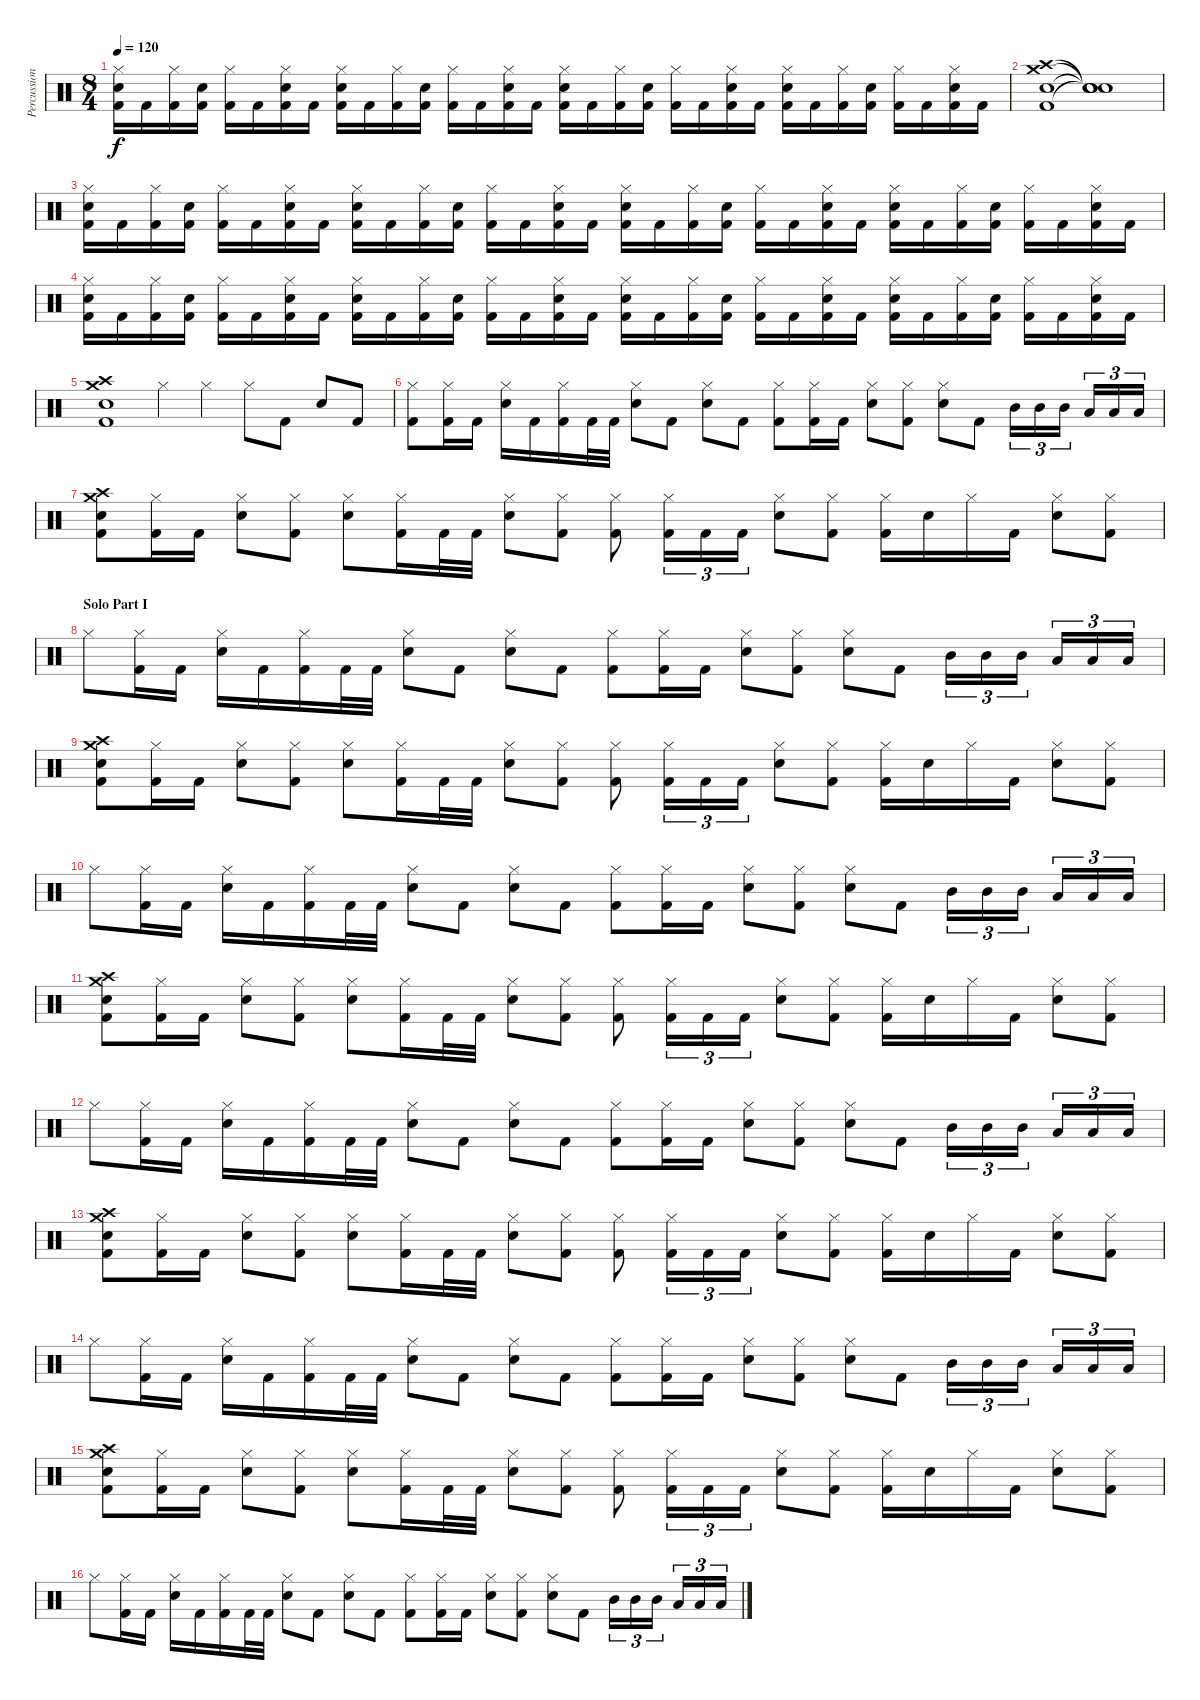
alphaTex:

\track ("Percussion" "Percussion") {instrument percussion}
\staff {score}
\articulation defaults
\ts (8 4)
\tempo 120
\clef neutral
\ks c
("Hi-Hat (closed)" "Snare (hit) 2" "Kick (hit) 2").16{dy f} "Kick (hit) 2".16 ("Hi-Hat (closed)" "Kick (hit) 2").16 ("Snare (hit) 2" "Kick (hit) 2").16 ("Hi-Hat (closed)" "Kick (hit) 2").16 "Kick (hit) 2".16 ("Hi-Hat (closed)" "Snare (hit) 2" "Kick (hit) 2").16 "Kick (hit) 2".16 ("Hi-Hat (closed)" "Snare (hit) 2" "Kick (hit) 2").16 "Kick (hit) 2".16 ("Hi-Hat (closed)" "Kick (hit) 2").16 ("Snare (hit) 2" "Kick (hit) 2").16 ("Hi-Hat (closed)" "Kick (hit) 2").16 "Kick (hit) 2".16 ("Hi-Hat (closed)" "Snare (hit) 2" "Kick (hit) 2").16 "Kick (hit) 2".16 ("Hi-Hat (closed)" "Snare (hit) 2" "Kick (hit) 2").16 "Kick (hit) 2".16 ("Hi-Hat (closed)" "Kick (hit) 2").16 ("Snare (hit) 2" "Kick (hit) 2").16 ("Hi-Hat (closed)" "Kick (hit) 2").16 "Kick (hit) 2".16 ("Hi-Hat (closed)" "Snare (hit) 2" "Kick (hit) 2").16 "Kick (hit) 2".16 ("Hi-Hat (closed)" "Snare (hit) 2" "Kick (hit) 2").16 "Kick (hit) 2".16 ("Hi-Hat (closed)" "Kick (hit) 2").16 ("Snare (hit) 2" "Kick (hit) 2").16 ("Hi-Hat (closed)" "Kick (hit) 2").16 "Kick (hit) 2".16 ("Hi-Hat (closed)" "Snare (hit) 2" "Kick (hit) 2").16 "Kick (hit) 2".16 |
("Crash medium (hit)" "Crash high (hit)" "Snare (hit) 2" "Kick (hit) 2").1 ("Snare (hit)"{t} "Snare (hit)"{t} "Snare (hit)"{t} "Snare (hit)"{t}).1 |
("Hi-Hat (closed)" "Snare (hit) 2" "Kick (hit) 2").16 "Kick (hit) 2".16 ("Hi-Hat (closed)" "Kick (hit) 2").16 ("Snare (hit) 2" "Kick (hit) 2").16 ("Hi-Hat (closed)" "Kick (hit) 2").16 "Kick (hit) 2".16 ("Hi-Hat (closed)" "Snare (hit) 2" "Kick (hit) 2").16 "Kick (hit) 2".16 ("Hi-Hat (closed)" "Snare (hit) 2" "Kick (hit) 2").16 "Kick (hit) 2".16 ("Hi-Hat (closed)" "Kick (hit) 2").16 ("Snare (hit) 2" "Kick (hit) 2").16 ("Hi-Hat (closed)" "Kick (hit) 2").16 "Kick (hit) 2".16 ("Hi-Hat (closed)" "Snare (hit) 2" "Kick (hit) 2").16 "Kick (hit) 2".16 ("Hi-Hat (closed)" "Snare (hit) 2" "Kick (hit) 2").16 "Kick (hit) 2".16 ("Hi-Hat (closed)" "Kick (hit) 2").16 ("Snare (hit) 2" "Kick (hit) 2").16 ("Hi-Hat (closed)" "Kick (hit) 2").16 "Kick (hit) 2".16 ("Hi-Hat (closed)" "Snare (hit) 2" "Kick (hit) 2").16 "Kick (hit) 2".16 ("Hi-Hat (closed)" "Snare (hit) 2" "Kick (hit) 2").16 "Kick (hit) 2".16 ("Hi-Hat (closed)" "Kick (hit) 2").16 ("Snare (hit) 2" "Kick (hit) 2").16 ("Hi-Hat (closed)" "Kick (hit) 2").16 "Kick (hit) 2".16 ("Hi-Hat (closed)" "Snare (hit) 2" "Kick (hit) 2").16 "Kick (hit) 2".16 |
("Hi-Hat (closed)" "Snare (hit) 2" "Kick (hit) 2").16 "Kick (hit) 2".16 ("Hi-Hat (closed)" "Kick (hit) 2").16 ("Snare (hit) 2" "Kick (hit) 2").16 ("Hi-Hat (closed)" "Kick (hit) 2").16 "Kick (hit) 2".16 ("Hi-Hat (closed)" "Snare (hit) 2" "Kick (hit) 2").16 "Kick (hit) 2".16 ("Hi-Hat (closed)" "Snare (hit) 2" "Kick (hit) 2").16 "Kick (hit) 2".16 ("Hi-Hat (closed)" "Kick (hit) 2").16 ("Snare (hit) 2" "Kick (hit) 2").16 ("Hi-Hat (closed)" "Kick (hit) 2").16 "Kick (hit) 2".16 ("Hi-Hat (closed)" "Snare (hit) 2" "Kick (hit) 2").16 "Kick (hit) 2".16 ("Hi-Hat (closed)" "Snare (hit) 2" "Kick (hit) 2").16 "Kick (hit) 2".16 ("Hi-Hat (closed)" "Kick (hit) 2").16 ("Snare (hit) 2" "Kick (hit) 2").16 ("Hi-Hat (closed)" "Kick (hit) 2").16 "Kick (hit) 2".16 ("Hi-Hat (closed)" "Snare (hit) 2" "Kick (hit) 2").16 "Kick (hit) 2".16 ("Hi-Hat (closed)" "Snare (hit) 2" "Kick (hit) 2").16 "Kick (hit) 2".16 ("Hi-Hat (closed)" "Kick (hit) 2").16 ("Snare (hit) 2" "Kick (hit) 2").16 ("Hi-Hat (closed)" "Kick (hit) 2").16 "Kick (hit) 2".16 ("Hi-Hat (closed)" "Snare (hit) 2" "Kick (hit) 2").16 "Kick (hit) 2".16 |
("Crash medium (hit)" "Crash high (hit)" "Snare (hit) 2" "Kick (hit) 2").1 "Hi-Hat (closed)".4 "Hi-Hat (closed)".4 "Hi-Hat (closed)".8 "Kick (hit) 2".8 "Snare (hit) 2".8 "Kick (hit) 2".8 |
("Hi-Hat (closed)" "Kick (hit) 2").8{volume 13} ("Hi-Hat (closed)" "Kick (hit) 2").16 "Kick (hit) 2".16 ("Hi-Hat (closed)" "Snare (hit) 2").16 "Kick (hit) 2".16 ("Hi-Hat (closed)" "Kick (hit) 2").16 "Kick (hit) 2".32 "Kick (hit) 2".32 ("Hi-Hat (closed)" "Snare (hit) 2").8 "Kick (hit) 2".8 ("Hi-Hat (closed)" "Snare (hit) 2").8 "Kick (hit) 2".8 ("Hi-Hat (closed)" "Kick (hit) 2").8 ("Hi-Hat (closed)" "Kick (hit) 2").16 "Kick (hit) 2".16 ("Hi-Hat (closed)" "Snare (hit) 2").8 ("Hi-Hat (closed)" "Kick (hit) 2").8 ("Hi-Hat (closed)" "Snare (hit) 2").8 "Kick (hit) 2".8 "Mid Tom (hit)".16{tu (3 2)} "Mid Tom (hit)".16{tu (3 2)} "Mid Tom (hit)".16{tu (3 2)} "Low Tom (hit)".16{tu (3 2)} "Low Tom (hit)".16{tu (3 2)} "Low Tom (hit)".16{tu (3 2)} |
("Crash medium (hit)" "Crash high (hit)" "Snare (hit) 2" "Kick (hit) 2").8 ("Hi-Hat (closed)" "Kick (hit) 2").16 "Kick (hit) 2".16 ("Hi-Hat (closed)" "Snare (hit) 2").8 ("Hi-Hat (closed)" "Kick (hit) 2").8 ("Hi-Hat (closed)" "Snare (hit) 2").8 ("Hi-Hat (closed)" "Kick (hit) 2").16 "Kick (hit) 2".32 "Kick (hit) 2".32 ("Hi-Hat (closed)" "Snare (hit) 2").8 ("Hi-Hat (closed)" "Kick (hit) 2").8 ("Hi-Hat (closed)" "Kick (hit) 2").8 ("Hi-Hat (closed)" "Kick (hit) 2").16{tu (3 2)} "Kick (hit) 2".16{tu (3 2)} "Kick (hit) 2".16{tu (3 2)} ("Hi-Hat (closed)" "Snare (hit) 2").8 ("Hi-Hat (closed)" "Kick (hit) 2").8 ("Hi-Hat (closed)" "Kick (hit) 2").16 "Snare (hit) 2".16 "Hi-Hat (closed)".16 "Kick (hit) 2".16 ("Hi-Hat (closed)" "Snare (hit) 2").8 ("Hi-Hat (closed)" "Kick (hit) 2").8 |
\section ("" "Solo Part I")
"Hi-Hat (closed)".8{volume 13} ("Hi-Hat (closed)" "Kick (hit) 2").16 "Kick (hit) 2".16 ("Hi-Hat (closed)" "Snare (hit) 2").16 "Kick (hit) 2".16 ("Hi-Hat (closed)" "Kick (hit) 2").16 "Kick (hit) 2".32 "Kick (hit) 2".32 ("Hi-Hat (closed)" "Snare (hit) 2").8 "Kick (hit) 2".8 ("Hi-Hat (closed)" "Snare (hit) 2").8 "Kick (hit) 2".8 ("Hi-Hat (closed)" "Kick (hit) 2").8 ("Hi-Hat (closed)" "Kick (hit) 2").16 "Kick (hit) 2".16 ("Hi-Hat (closed)" "Snare (hit) 2").8 ("Hi-Hat (closed)" "Kick (hit) 2").8 ("Hi-Hat (closed)" "Snare (hit) 2").8 "Kick (hit) 2".8 "Mid Tom (hit)".16{tu (3 2)} "Mid Tom (hit)".16{tu (3 2)} "Mid Tom (hit)".16{tu (3 2)} "Low Tom (hit)".16{tu (3 2)} "Low Tom (hit)".16{tu (3 2)} "Low Tom (hit)".16{tu (3 2)} |
("Crash medium (hit)" "Crash high (hit)" "Snare (hit) 2" "Kick (hit) 2").8 ("Hi-Hat (closed)" "Kick (hit) 2").16 "Kick (hit) 2".16 ("Hi-Hat (closed)" "Snare (hit) 2").8 ("Hi-Hat (closed)" "Kick (hit) 2").8 ("Hi-Hat (closed)" "Snare (hit) 2").8 ("Hi-Hat (closed)" "Kick (hit) 2").16 "Kick (hit) 2".32 "Kick (hit) 2".32 ("Hi-Hat (closed)" "Snare (hit) 2").8 ("Hi-Hat (closed)" "Kick (hit) 2").8 ("Hi-Hat (closed)" "Kick (hit) 2").8 ("Hi-Hat (closed)" "Kick (hit) 2").16{tu (3 2)} "Kick (hit) 2".16{tu (3 2)} "Kick (hit) 2".16{tu (3 2)} ("Hi-Hat (closed)" "Snare (hit) 2").8 ("Hi-Hat (closed)" "Kick (hit) 2").8 ("Hi-Hat (closed)" "Kick (hit) 2").16 "Snare (hit) 2".16 "Hi-Hat (closed)".16 "Kick (hit) 2".16 ("Hi-Hat (closed)" "Snare (hit) 2").8 ("Hi-Hat (closed)" "Kick (hit) 2").8 |
"Hi-Hat (closed)".8{volume 13} ("Hi-Hat (closed)" "Kick (hit) 2").16 "Kick (hit) 2".16 ("Hi-Hat (closed)" "Snare (hit) 2").16 "Kick (hit) 2".16 ("Hi-Hat (closed)" "Kick (hit) 2").16 "Kick (hit) 2".32 "Kick (hit) 2".32 ("Hi-Hat (closed)" "Snare (hit) 2").8 "Kick (hit) 2".8 ("Hi-Hat (closed)" "Snare (hit) 2").8 "Kick (hit) 2".8 ("Hi-Hat (closed)" "Kick (hit) 2").8 ("Hi-Hat (closed)" "Kick (hit) 2").16 "Kick (hit) 2".16 ("Hi-Hat (closed)" "Snare (hit) 2").8 ("Hi-Hat (closed)" "Kick (hit) 2").8 ("Hi-Hat (closed)" "Snare (hit) 2").8 "Kick (hit) 2".8 "Mid Tom (hit)".16{tu (3 2)} "Mid Tom (hit)".16{tu (3 2)} "Mid Tom (hit)".16{tu (3 2)} "Low Tom (hit)".16{tu (3 2)} "Low Tom (hit)".16{tu (3 2)} "Low Tom (hit)".16{tu (3 2)} |
("Crash medium (hit)" "Crash high (hit)" "Snare (hit) 2" "Kick (hit) 2").8 ("Hi-Hat (closed)" "Kick (hit) 2").16 "Kick (hit) 2".16 ("Hi-Hat (closed)" "Snare (hit) 2").8 ("Hi-Hat (closed)" "Kick (hit) 2").8 ("Hi-Hat (closed)" "Snare (hit) 2").8 ("Hi-Hat (closed)" "Kick (hit) 2").16 "Kick (hit) 2".32 "Kick (hit) 2".32 ("Hi-Hat (closed)" "Snare (hit) 2").8 ("Hi-Hat (closed)" "Kick (hit) 2").8 ("Hi-Hat (closed)" "Kick (hit) 2").8 ("Hi-Hat (closed)" "Kick (hit) 2").16{tu (3 2)} "Kick (hit) 2".16{tu (3 2)} "Kick (hit) 2".16{tu (3 2)} ("Hi-Hat (closed)" "Snare (hit) 2").8 ("Hi-Hat (closed)" "Kick (hit) 2").8 ("Hi-Hat (closed)" "Kick (hit) 2").16 "Snare (hit) 2".16 "Hi-Hat (closed)".16 "Kick (hit) 2".16 ("Hi-Hat (closed)" "Snare (hit) 2").8 ("Hi-Hat (closed)" "Kick (hit) 2").8 |
"Hi-Hat (closed)".8{volume 13} ("Hi-Hat (closed)" "Kick (hit) 2").16 "Kick (hit) 2".16 ("Hi-Hat (closed)" "Snare (hit) 2").16 "Kick (hit) 2".16 ("Hi-Hat (closed)" "Kick (hit) 2").16 "Kick (hit) 2".32 "Kick (hit) 2".32 ("Hi-Hat (closed)" "Snare (hit) 2").8 "Kick (hit) 2".8 ("Hi-Hat (closed)" "Snare (hit) 2").8 "Kick (hit) 2".8 ("Hi-Hat (closed)" "Kick (hit) 2").8 ("Hi-Hat (closed)" "Kick (hit) 2").16 "Kick (hit) 2".16 ("Hi-Hat (closed)" "Snare (hit) 2").8 ("Hi-Hat (closed)" "Kick (hit) 2").8 ("Hi-Hat (closed)" "Snare (hit) 2").8 "Kick (hit) 2".8 "Mid Tom (hit)".16{tu (3 2)} "Mid Tom (hit)".16{tu (3 2)} "Mid Tom (hit)".16{tu (3 2)} "Low Tom (hit)".16{tu (3 2)} "Low Tom (hit)".16{tu (3 2)} "Low Tom (hit)".16{tu (3 2)} |
("Crash medium (hit)" "Crash high (hit)" "Snare (hit) 2" "Kick (hit) 2").8 ("Hi-Hat (closed)" "Kick (hit) 2").16 "Kick (hit) 2".16 ("Hi-Hat (closed)" "Snare (hit) 2").8 ("Hi-Hat (closed)" "Kick (hit) 2").8 ("Hi-Hat (closed)" "Snare (hit) 2").8 ("Hi-Hat (closed)" "Kick (hit) 2").16 "Kick (hit) 2".32 "Kick (hit) 2".32 ("Hi-Hat (closed)" "Snare (hit) 2").8 ("Hi-Hat (closed)" "Kick (hit) 2").8 ("Hi-Hat (closed)" "Kick (hit) 2").8 ("Hi-Hat (closed)" "Kick (hit) 2").16{tu (3 2)} "Kick (hit) 2".16{tu (3 2)} "Kick (hit) 2".16{tu (3 2)} ("Hi-Hat (closed)" "Snare (hit) 2").8 ("Hi-Hat (closed)" "Kick (hit) 2").8 ("Hi-Hat (closed)" "Kick (hit) 2").16 "Snare (hit) 2".16 "Hi-Hat (closed)".16 "Kick (hit) 2".16 ("Hi-Hat (closed)" "Snare (hit) 2").8 ("Hi-Hat (closed)" "Kick (hit) 2").8 |
"Hi-Hat (closed)".8{volume 13} ("Hi-Hat (closed)" "Kick (hit) 2").16 "Kick (hit) 2".16 ("Hi-Hat (closed)" "Snare (hit) 2").16 "Kick (hit) 2".16 ("Hi-Hat (closed)" "Kick (hit) 2").16 "Kick (hit) 2".32 "Kick (hit) 2".32 ("Hi-Hat (closed)" "Snare (hit) 2").8 "Kick (hit) 2".8 ("Hi-Hat (closed)" "Snare (hit) 2").8 "Kick (hit) 2".8 ("Hi-Hat (closed)" "Kick (hit) 2").8 ("Hi-Hat (closed)" "Kick (hit) 2").16 "Kick (hit) 2".16 ("Hi-Hat (closed)" "Snare (hit) 2").8 ("Hi-Hat (closed)" "Kick (hit) 2").8 ("Hi-Hat (closed)" "Snare (hit) 2").8 "Kick (hit) 2".8 "Mid Tom (hit)".16{tu (3 2)} "Mid Tom (hit)".16{tu (3 2)} "Mid Tom (hit)".16{tu (3 2)} "Low Tom (hit)".16{tu (3 2)} "Low Tom (hit)".16{tu (3 2)} "Low Tom (hit)".16{tu (3 2)} |
("Crash medium (hit)" "Crash high (hit)" "Snare (hit) 2" "Kick (hit) 2").8 ("Hi-Hat (closed)" "Kick (hit) 2").16 "Kick (hit) 2".16 ("Hi-Hat (closed)" "Snare (hit) 2").8 ("Hi-Hat (closed)" "Kick (hit) 2").8 ("Hi-Hat (closed)" "Snare (hit) 2").8 ("Hi-Hat (closed)" "Kick (hit) 2").16 "Kick (hit) 2".32 "Kick (hit) 2".32 ("Hi-Hat (closed)" "Snare (hit) 2").8 ("Hi-Hat (closed)" "Kick (hit) 2").8 ("Hi-Hat (closed)" "Kick (hit) 2").8 ("Hi-Hat (closed)" "Kick (hit) 2").16{tu (3 2)} "Kick (hit) 2".16{tu (3 2)} "Kick (hit) 2".16{tu (3 2)} ("Hi-Hat (closed)" "Snare (hit) 2").8 ("Hi-Hat (closed)" "Kick (hit) 2").8 ("Hi-Hat (closed)" "Kick (hit) 2").16 "Snare (hit) 2".16 "Hi-Hat (closed)".16 "Kick (hit) 2".16 ("Hi-Hat (closed)" "Snare (hit) 2").8 ("Hi-Hat (closed)" "Kick (hit) 2").8 |
"Hi-Hat (closed)".8{volume 13} ("Hi-Hat (closed)" "Kick (hit) 2").16 "Kick (hit) 2".16 ("Hi-Hat (closed)" "Snare (hit) 2").16 "Kick (hit) 2".16 ("Hi-Hat (closed)" "Kick (hit) 2").16 "Kick (hit) 2".32 "Kick (hit) 2".32 ("Hi-Hat (closed)" "Snare (hit) 2").8 "Kick (hit) 2".8 ("Hi-Hat (closed)" "Snare (hit) 2").8 "Kick (hit) 2".8 ("Hi-Hat (closed)" "Kick (hit) 2").8 ("Hi-Hat (closed)" "Kick (hit) 2").16 "Kick (hit) 2".16 ("Hi-Hat (closed)" "Snare (hit) 2").8 ("Hi-Hat (closed)" "Kick (hit) 2").8 ("Hi-Hat (closed)" "Snare (hit) 2").8 "Kick (hit) 2".8 "Mid Tom (hit)".16{tu (3 2)} "Mid Tom (hit)".16{tu (3 2)} "Mid Tom (hit)".16{tu (3 2)} "Low Tom (hit)".16{tu (3 2)} "Low Tom (hit)".16{tu (3 2)} "Low Tom (hit)".16{tu (3 2)}
